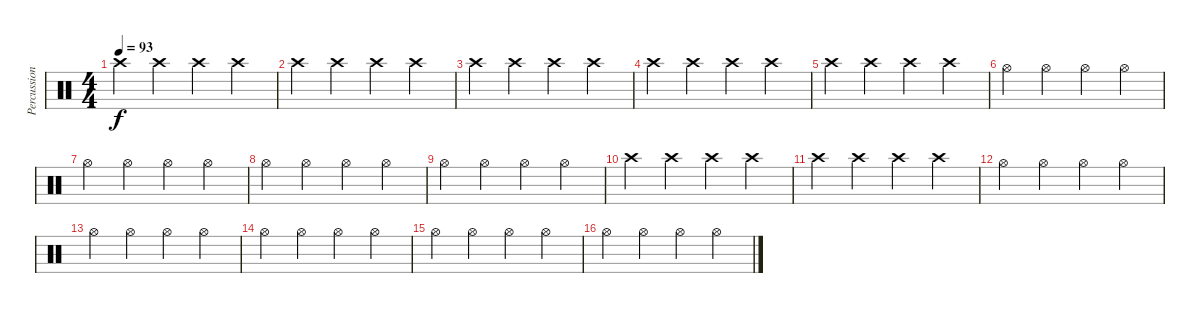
\track ("Percussion" "Percussion") {instrument percussion}
\staff {score}
\articulation defaults
\ts (4 4)
\tempo 93
\clef neutral
\ks c "Crash high (hit)".4{dy f} "Crash high (hit)".4 "Crash high (hit)".4 "Crash high (hit)".4
|
"Crash high (hit)".4 "Crash high (hit)".4 "Crash high (hit)".4 "Crash high (hit)".4 |
"Crash high (hit)".4 "Crash high (hit)".4 "Crash high (hit)".4 "Crash high (hit)".4 |
"Crash high (hit)".4 "Crash high (hit)".4 "Crash high (hit)".4 "Crash high (hit)".4 |
"Crash high (hit)".4 "Crash high (hit)".4 "Crash high (hit)".4 "Crash high (hit)".4 |
"Hi-Hat (open)".4 "Hi-Hat (open)".4 "Hi-Hat (open)".4 "Hi-Hat (open)".4 |
"Hi-Hat (open)".4 "Hi-Hat (open)".4 "Hi-Hat (open)".4 "Hi-Hat (open)".4 |
"Hi-Hat (open)".4 "Hi-Hat (open)".4 "Hi-Hat (open)".4 "Hi-Hat (open)".4 |
"Hi-Hat (open)".4 "Hi-Hat (open)".4 "Hi-Hat (open)".4 "Hi-Hat (open)".4 |
"Crash high (hit)".4 "Crash high (hit)".4 "Crash high (hit)".4 "Crash high (hit)".4 |
"Crash high (hit)".4 "Crash high (hit)".4 "Crash high (hit)".4 "Crash high (hit)".4 |
"Hi-Hat (open)".4 "Hi-Hat (open)".4 "Hi-Hat (open)".4 "Hi-Hat (open)".4 |
"Hi-Hat (open)".4 "Hi-Hat (open)".4 "Hi-Hat (open)".4 "Hi-Hat (open)".4 |
"Hi-Hat (open)".4 "Hi-Hat (open)".4 "Hi-Hat (open)".4 "Hi-Hat (open)".4 |
"Hi-Hat (open)".4 "Hi-Hat (open)".4 "Hi-Hat (open)".4 "Hi-Hat (open)".4 |
"Hi-Hat (open)".4 "Hi-Hat (open)".4 "Hi-Hat (open)".4 "Hi-Hat (open)".4
